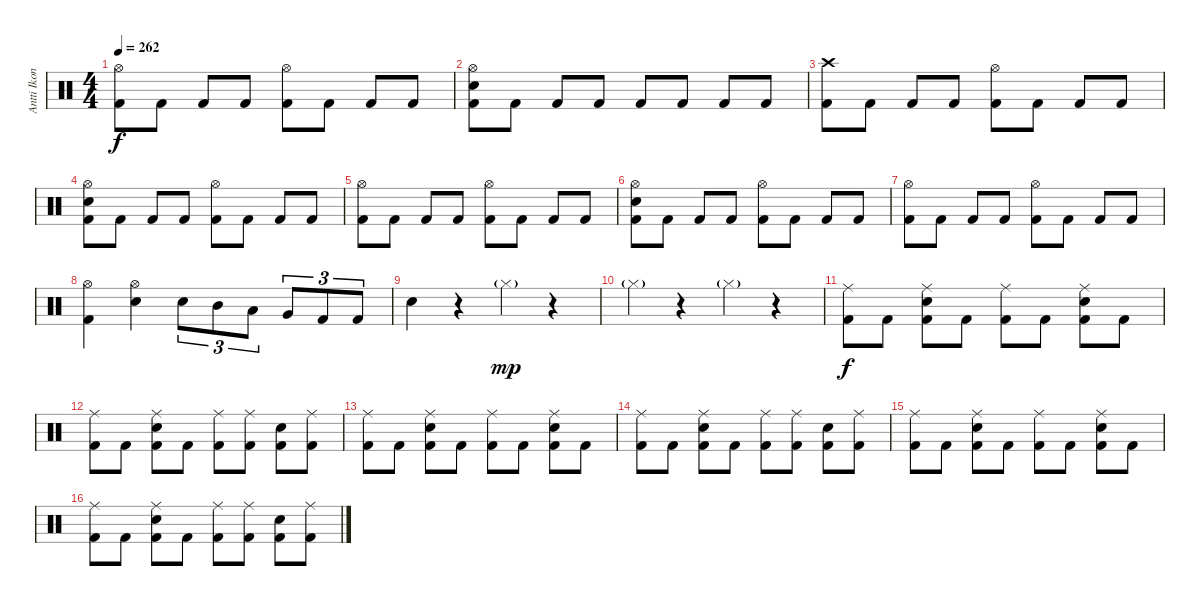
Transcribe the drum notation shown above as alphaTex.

\track ("Antti Ikonen" "Antti Ikon") {instrument percussion}
\staff {score}
\articulation defaults
\ts (4 4)
\tempo 262
\clef neutral
\ks c
("Hi-Hat (open)" "Kick (hit) 2").8{dy f} "Kick (hit) 2".8 "Kick (hit) 2".8 "Kick (hit) 2".8 ("Hi-Hat (open)" "Kick (hit) 2").8 "Kick (hit) 2".8 "Kick (hit) 2".8 "Kick (hit) 2".8 |
("Hi-Hat (open)" "Electric Snare (hit)" "Kick (hit) 2").8 "Kick (hit) 2".8 "Kick (hit) 2".8 "Kick (hit) 2".8 "Kick (hit) 2".8 "Kick (hit) 2".8 "Kick (hit) 2".8 "Kick (hit) 2".8 |
("Crash high (hit)" "Kick (hit) 2").8 "Kick (hit) 2".8 "Kick (hit) 2".8 "Kick (hit) 2".8 ("Hi-Hat (open)" "Kick (hit) 2").8 "Kick (hit) 2".8 "Kick (hit) 2".8 "Kick (hit) 2".8 |
("Hi-Hat (open)" "Electric Snare (hit)" "Kick (hit) 2").8 "Kick (hit) 2".8 "Kick (hit) 2".8 "Kick (hit) 2".8 ("Hi-Hat (open)" "Kick (hit) 2").8 "Kick (hit) 2".8 "Kick (hit) 2".8 "Kick (hit) 2".8 |
("Hi-Hat (open)" "Kick (hit) 2").8 "Kick (hit) 2".8 "Kick (hit) 2".8 "Kick (hit) 2".8 ("Hi-Hat (open)" "Kick (hit) 2").8 "Kick (hit) 2".8 "Kick (hit) 2".8 "Kick (hit) 2".8 |
("Hi-Hat (open)" "Electric Snare (hit)" "Kick (hit) 2").8 "Kick (hit) 2".8 "Kick (hit) 2".8 "Kick (hit) 2".8 ("Hi-Hat (open)" "Kick (hit) 2").8 "Kick (hit) 2".8 "Kick (hit) 2".8 "Kick (hit) 2".8 |
("Hi-Hat (open)" "Kick (hit) 2").8 "Kick (hit) 2".8 "Kick (hit) 2".8 "Kick (hit) 2".8 ("Hi-Hat (open)" "Kick (hit) 2").8 "Kick (hit) 2".8 "Kick (hit) 2".8 "Kick (hit) 2".8 |
("Hi-Hat (open)" "Kick (hit) 2").4 ("Hi-Hat (open)" "Electric Snare (hit)").4 "Electric Snare (hit)".8{tu (3 2)} "Mid Tom (hit)".8{tu (3 2)} "Low Tom (hit)".8{tu (3 2)} "Very Low Tom (hit)".8{tu (3 2)} "Kick (hit) 2".8{tu (3 2)} "Kick (hit) 2".8{tu (3 2)} |
"Electric Snare (hit)".4 r.4 "Hi-Hat (closed)"{g}.4{dy mp} r.4 |
"Hi-Hat (closed)"{g}.4 r.4 "Hi-Hat (closed)"{g}.4 r.4 |
("Ride (middle)" "Kick (hit) 2").8{dy f} "Kick (hit) 2".8 ("Ride (middle)" "Electric Snare (hit)" "Kick (hit) 2").8 "Kick (hit) 2".8 ("Ride (middle)" "Kick (hit) 2").8 "Kick (hit) 2".8 ("Ride (middle)" "Electric Snare (hit)" "Kick (hit) 2").8 "Kick (hit) 2".8 |
("Ride (middle)" "Kick (hit) 2").8 "Kick (hit) 2".8 ("Ride (middle)" "Electric Snare (hit)" "Kick (hit) 2").8 "Kick (hit) 2".8 ("Ride (middle)" "Kick (hit) 2").8 ("Ride (middle)" "Kick (hit) 2").8 ("Electric Snare (hit)" "Kick (hit) 2").8 ("Ride (middle)" "Kick (hit) 2").8 |
("Ride (middle)" "Kick (hit) 2").8 "Kick (hit) 2".8 ("Ride (middle)" "Electric Snare (hit)" "Kick (hit) 2").8 "Kick (hit) 2".8 ("Ride (middle)" "Kick (hit) 2").8 "Kick (hit) 2".8 ("Ride (middle)" "Electric Snare (hit)" "Kick (hit) 2").8 "Kick (hit) 2".8 |
("Ride (middle)" "Kick (hit) 2").8 "Kick (hit) 2".8 ("Ride (middle)" "Electric Snare (hit)" "Kick (hit) 2").8 "Kick (hit) 2".8 ("Ride (middle)" "Kick (hit) 2").8 ("Ride (middle)" "Kick (hit) 2").8 ("Electric Snare (hit)" "Kick (hit) 2").8 ("Ride (middle)" "Kick (hit) 2").8 |
("Ride (middle)" "Kick (hit) 2").8 "Kick (hit) 2".8 ("Ride (middle)" "Electric Snare (hit)" "Kick (hit) 2").8 "Kick (hit) 2".8 ("Ride (middle)" "Kick (hit) 2").8 "Kick (hit) 2".8 ("Ride (middle)" "Electric Snare (hit)" "Kick (hit) 2").8 "Kick (hit) 2".8 |
("Ride (middle)" "Kick (hit) 2").8 "Kick (hit) 2".8 ("Ride (middle)" "Electric Snare (hit)" "Kick (hit) 2").8 "Kick (hit) 2".8 ("Ride (middle)" "Kick (hit) 2").8 ("Ride (middle)" "Kick (hit) 2").8 ("Electric Snare (hit)" "Kick (hit) 2").8 ("Ride (middle)" "Kick (hit) 2").8
